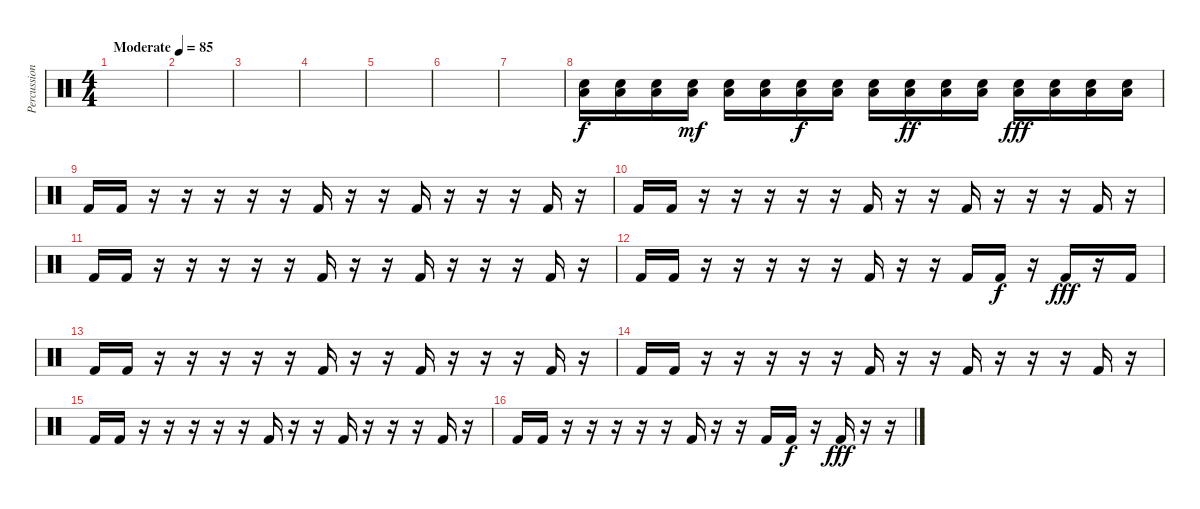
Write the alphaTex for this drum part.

\track ("Percussion" "Percussion") {instrument percussion}
\staff {score}
\articulation defaults
\ts (4 4)
\tempo (85 "Moderate")
\clef neutral
\ks c
|
|
|
|
|
|
|
("Low Floor Tom (hit)" "Snare (hit) 2").16 ("Low Floor Tom (hit)" "Snare (hit) 2").16 ("Low Floor Tom (hit)" "Snare (hit) 2").16 ("Low Floor Tom (hit)" "Snare (hit) 2").16{dy mf} ("Low Floor Tom (hit)" "Snare (hit) 2").16 ("Low Floor Tom (hit)" "Snare (hit) 2").16 ("Low Floor Tom (hit)" "Snare (hit) 2").16{dy f} ("Low Floor Tom (hit)" "Snare (hit) 2").16 ("Low Floor Tom (hit)" "Snare (hit) 2").16 ("Low Floor Tom (hit)" "Snare (hit) 2").16{dy ff} ("Low Floor Tom (hit)" "Snare (hit) 2").16 ("Low Floor Tom (hit)" "Snare (hit) 2").16 ("Low Floor Tom (hit)" "Snare (hit) 2").16{dy fff} ("Low Floor Tom (hit)" "Snare (hit) 2").16 ("Low Floor Tom (hit)" "Snare (hit) 2").16 ("Low Floor Tom (hit)" "Snare (hit) 2").16 |
"Kick (hit) 2".16 "Kick (hit) 2".16 r.16 r.16 r.16 r.16 r.16 "Kick (hit) 2".16 r.16 r.16 "Kick (hit) 2".16 r.16 r.16 r.16 "Kick (hit) 2".16 r.16 |
"Kick (hit) 2".16 "Kick (hit) 2".16 r.16 r.16 r.16 r.16 r.16 "Kick (hit) 2".16 r.16 r.16 "Kick (hit) 2".16 r.16 r.16 r.16 "Kick (hit) 2".16 r.16 |
"Kick (hit) 2".16 "Kick (hit) 2".16 r.16 r.16 r.16 r.16 r.16 "Kick (hit) 2".16 r.16 r.16 "Kick (hit) 2".16 r.16 r.16 r.16 "Kick (hit) 2".16 r.16 |
"Kick (hit) 2".16 "Kick (hit) 2".16 r.16 r.16 r.16 r.16 r.16 "Kick (hit) 2".16 r.16 r.16 "Kick (hit) 2".16 "Kick (hit) 2".16{dy f} r.16 "Kick (hit) 2".16{dy fff} r.16 "Kick (hit) 2".16 |
"Kick (hit) 2".16 "Kick (hit) 2".16 r.16 r.16 r.16 r.16 r.16 "Kick (hit) 2".16 r.16 r.16 "Kick (hit) 2".16 r.16 r.16 r.16 "Kick (hit) 2".16 r.16 |
"Kick (hit) 2".16 "Kick (hit) 2".16 r.16 r.16 r.16 r.16 r.16 "Kick (hit) 2".16 r.16 r.16 "Kick (hit) 2".16 r.16 r.16 r.16 "Kick (hit) 2".16 r.16 |
"Kick (hit) 2".16 "Kick (hit) 2".16 r.16 r.16 r.16 r.16 r.16 "Kick (hit) 2".16 r.16 r.16 "Kick (hit) 2".16 r.16 r.16 r.16 "Kick (hit) 2".16 r.16 |
"Kick (hit) 2".16 "Kick (hit) 2".16 r.16 r.16 r.16 r.16 r.16 "Kick (hit) 2".16 r.16 r.16 "Kick (hit) 2".16 "Kick (hit) 2".16{dy f} r.16 "Kick (hit) 2".16{dy fff} r.16 r.16
